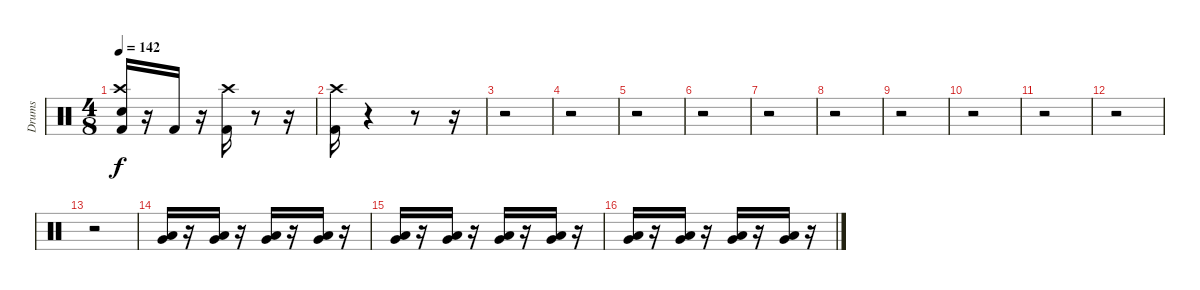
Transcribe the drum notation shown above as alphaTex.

\track ("Drums" "Drums") {instrument percussion}
\staff {score}
\articulation defaults
\ts (4 8)
\tempo 142
\clef neutral
\ks c
("Kick (hit) 2" "Crash high (hit)" "Electric Snare (hit)").16{dy f} r.16 "Kick (hit) 2".16 r.16 ("Crash high (hit)" "Kick (hit) 2").16 r.8 r.16 |
("Kick (hit) 2" "Crash high (hit)").16 r.4 r.8 r.16 |
r.2 |
r.2 |
r.2 |
r.2 |
r.2 |
r.2 |
r.2 |
r.2 |
r.2 |
r.2 |
r.2 |
("Very Low Tom (hit)" "Low Tom (hit)").16 r.16 ("Low Tom (hit)" "Very Low Tom (hit)").16 r.16 ("Low Tom (hit)" "Very Low Tom (hit)").16 r.16 ("Low Tom (hit)" "Very Low Tom (hit)").16 r.16 |
("Low Tom (hit)" "Very Low Tom (hit)").16 r.16 ("Very Low Tom (hit)" "Low Tom (hit)").16 r.16 ("Low Tom (hit)" "Very Low Tom (hit)").16 r.16 ("Very Low Tom (hit)" "Low Tom (hit)").16 r.16 |
("Very Low Tom (hit)" "Low Tom (hit)").16 r.16 ("Low Tom (hit)" "Very Low Tom (hit)").16 r.16 ("Low Tom (hit)" "Very Low Tom (hit)").16 r.16 ("Low Tom (hit)" "Very Low Tom (hit)").16 r.16
